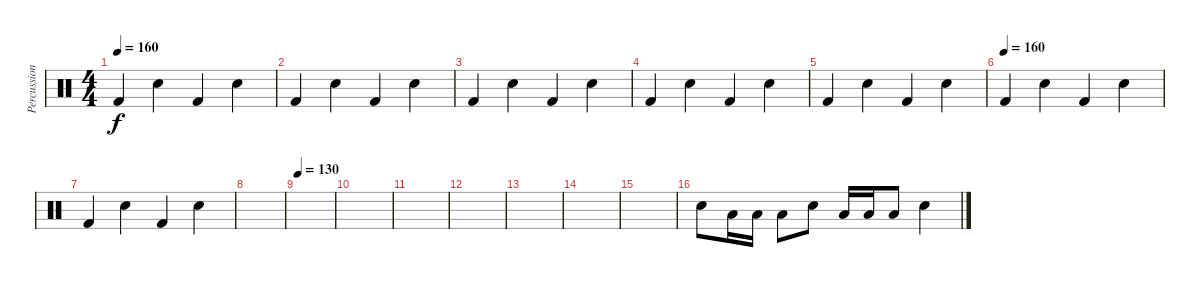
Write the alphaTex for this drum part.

\track ("Percussions" "Percussion") {instrument percussion}
\staff {score}
\articulation defaults
\ts (4 4)
\tempo 160
\clef neutral
\ks c "Kick (hit) 2".4{dy f} "Electric Snare (hit)".4 "Kick (hit) 2".4 "Electric Snare (hit)".4
|
"Kick (hit) 2".4 "Electric Snare (hit)".4 "Kick (hit) 2".4 "Electric Snare (hit)".4 |
"Kick (hit) 2".4 "Electric Snare (hit)".4 "Kick (hit) 2".4 "Electric Snare (hit)".4 |
"Kick (hit) 2".4 "Electric Snare (hit)".4 "Kick (hit) 2".4 "Electric Snare (hit)".4 |
"Kick (hit) 2".4 "Electric Snare (hit)".4 "Kick (hit) 2".4 "Electric Snare (hit)".4 |
\tempo (160)
"Kick (hit) 2".4 "Electric Snare (hit)".4 "Kick (hit) 2".4 "Electric Snare (hit)".4 |
"Kick (hit) 2".4 "Electric Snare (hit)".4 "Kick (hit) 2".4 "Electric Snare (hit)".4 |
|
\tempo 130
|
|
|
|
|
|
|
"Electric Snare (hit)".8 "Low Tom (hit)".16 "Low Tom (hit)".16 "Low Tom (hit)".8 "Electric Snare (hit)".8 "Low Tom (hit)".16 "Low Tom (hit)".16 "Low Tom (hit)".8 "Electric Snare (hit)".4
